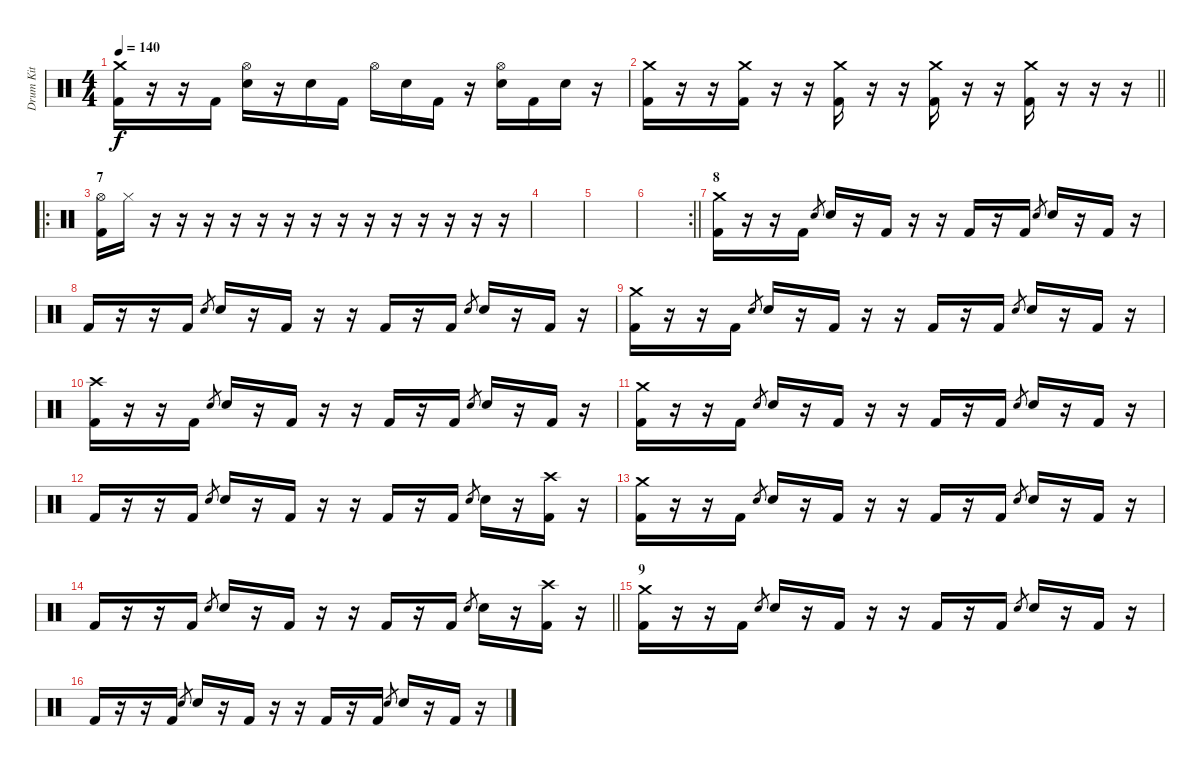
\track ("Drum Kit" "Drum Kit") {instrument percussion}
\staff {score}
\articulation defaults
\ts (4 4)
\tempo 140
\clef neutral
\ks c
("Crash medium (hit)" "Kick (hit) 2").16{dy f} r.16 r.16 "Kick (hit) 2".16 ("Hi-Hat (open)" "Electric Snare (hit)").16 r.16 "Electric Snare (hit)".16 "Kick (hit) 2".16 "Hi-Hat (open)".16 "Electric Snare (hit)".16 "Kick (hit) 2".16 r.16 ("Hi-Hat (open)" "Electric Snare (hit)").16 "Kick (hit) 2".16 "Electric Snare (hit)".16 r.16 |
\barLineRight lightlight
("Crash medium (hit)" "Kick (hit) 2").16 r.16 r.16 ("Crash medium (hit)" "Kick (hit) 2").16 r.16 r.16 ("Crash medium (hit)" "Kick (hit) 2").16 r.16 r.16 ("Crash medium (hit)" "Kick (hit) 2").16 r.16 r.16 ("Crash medium (hit)" "Kick (hit) 2").16 r.16 r.16 r.16 |
\ro
\section ("" "7")
("Hi-Hat (open)" "Kick (hit) 2").16 "Hi-Hat (closed)".16 r.16 r.16 r.16 r.16 r.16 r.16 r.16 r.16 r.16 r.16 r.16 r.16 r.16 r.16 |
|
|
\rc 2
\barLineRight lightlight
|
\section ("" "8")
("Crash medium (hit)" "Kick (hit) 2").16 r.16 r.16 "Kick (hit) 2".16 "Electric Snare (hit)".8{gr} "Electric Snare (hit)".16 r.16 "Kick (hit) 2".16 r.16 r.16 "Kick (hit) 2".16 r.16 "Kick (hit) 2".16 "Electric Snare (hit)".8{gr} "Electric Snare (hit)".16 r.16 "Kick (hit) 2".16 r.16 |
"Kick (hit) 2".16 r.16 r.16 "Kick (hit) 2".16 "Electric Snare (hit)".8{gr} "Electric Snare (hit)".16 r.16 "Kick (hit) 2".16 r.16 r.16 "Kick (hit) 2".16 r.16 "Kick (hit) 2".16 "Electric Snare (hit)".8{gr} "Electric Snare (hit)".16 r.16 "Kick (hit) 2".16 r.16 |
("Crash medium (hit)" "Kick (hit) 2").16 r.16 r.16 "Kick (hit) 2".16 "Electric Snare (hit)".8{gr} "Electric Snare (hit)".16 r.16 "Kick (hit) 2".16 r.16 r.16 "Kick (hit) 2".16 r.16 "Kick (hit) 2".16 "Electric Snare (hit)".8{gr} "Electric Snare (hit)".16 r.16 "Kick (hit) 2".16 r.16 |
("Crash high (hit)" "Kick (hit) 2").16 r.16 r.16 "Kick (hit) 2".16 "Electric Snare (hit)".8{gr} "Electric Snare (hit)".16 r.16 "Kick (hit) 2".16 r.16 r.16 "Kick (hit) 2".16 r.16 "Kick (hit) 2".16 "Electric Snare (hit)".8{gr} "Electric Snare (hit)".16 r.16 "Kick (hit) 2".16 r.16 |
("Crash medium (hit)" "Kick (hit) 2").16 r.16 r.16 "Kick (hit) 2".16 "Electric Snare (hit)".8{gr} "Electric Snare (hit)".16 r.16 "Kick (hit) 2".16 r.16 r.16 "Kick (hit) 2".16 r.16 "Kick (hit) 2".16 "Electric Snare (hit)".8{gr} "Electric Snare (hit)".16 r.16 "Kick (hit) 2".16 r.16 |
"Kick (hit) 2".16 r.16 r.16 "Kick (hit) 2".16 "Electric Snare (hit)".8{gr} "Electric Snare (hit)".16 r.16 "Kick (hit) 2".16 r.16 r.16 "Kick (hit) 2".16 r.16 "Kick (hit) 2".16 "Electric Snare (hit)".8{gr} "Electric Snare (hit)".16 r.16 ("Crash high (hit)" "Kick (hit) 2").16 r.16 |
("Crash medium (hit)" "Kick (hit) 2").16 r.16 r.16 "Kick (hit) 2".16 "Electric Snare (hit)".8{gr} "Electric Snare (hit)".16 r.16 "Kick (hit) 2".16 r.16 r.16 "Kick (hit) 2".16 r.16 "Kick (hit) 2".16 "Electric Snare (hit)".8{gr} "Electric Snare (hit)".16 r.16 "Kick (hit) 2".16 r.16 |
\barLineRight lightlight "Kick (hit) 2".16
r.16 r.16 "Kick (hit) 2".16 "Electric Snare (hit)".8{gr} "Electric Snare (hit)".16 r.16 "Kick (hit) 2".16 r.16 r.16 "Kick (hit) 2".16 r.16 "Kick (hit) 2".16 "Electric Snare (hit)".8{gr} "Electric Snare (hit)".16 r.16 ("Crash high (hit)" "Kick (hit) 2").16 r.16 |
\section ("" "9")
("Crash medium (hit)" "Kick (hit) 2").16 r.16 r.16 "Kick (hit) 2".16 "Electric Snare (hit)".8{gr} "Electric Snare (hit)".16 r.16 "Kick (hit) 2".16 r.16 r.16 "Kick (hit) 2".16 r.16 "Kick (hit) 2".16 "Electric Snare (hit)".8{gr} "Electric Snare (hit)".16 r.16 "Kick (hit) 2".16 r.16 |
"Kick (hit) 2".16 r.16 r.16 "Kick (hit) 2".16 "Electric Snare (hit)".8{gr} "Electric Snare (hit)".16 r.16 "Kick (hit) 2".16 r.16 r.16 "Kick (hit) 2".16 r.16 "Kick (hit) 2".16 "Electric Snare (hit)".8{gr} "Electric Snare (hit)".16 r.16 "Kick (hit) 2".16 r.16
